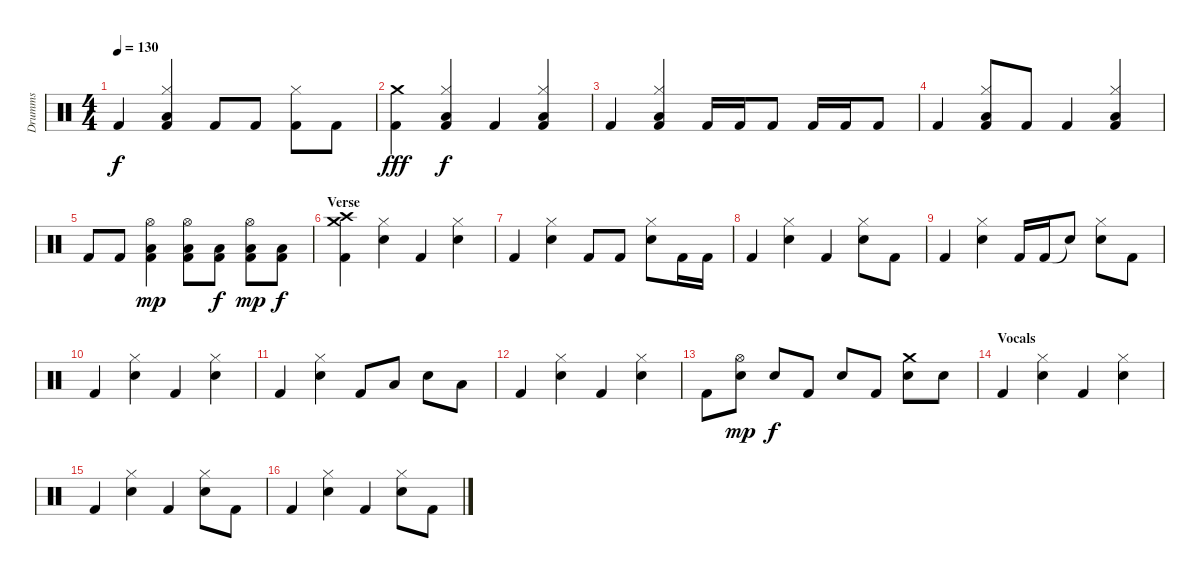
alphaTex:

\track ("Drumms" "Drumms") {instrument percussion}
\staff {score}
\articulation defaults
\ts (4 4)
\tempo 130
\clef neutral
\ks c "Kick (hit) 2".4{dy f}
("Hi-Hat (closed)" "Kick (hit) 2" "Low Tom (hit)").4 "Kick (hit) 2".8 "Kick (hit) 2".8 ("Hi-Hat (closed)" "Kick (hit) 2").8 "Kick (hit) 2".8 |
("Crash medium (hit)" "Kick (hit) 2").4{dy fff} ("Hi-Hat (closed)" "Kick (hit) 2" "Low Tom (hit)").4{dy f} "Kick (hit) 2".4 ("Hi-Hat (closed)" "Kick (hit) 2" "Low Tom (hit)").4 |
"Kick (hit) 2".4 ("Hi-Hat (closed)" "Kick (hit) 2" "Low Tom (hit)").4 "Kick (hit) 2".16 "Kick (hit) 2".16 "Kick (hit) 2".8 "Kick (hit) 2".16 "Kick (hit) 2".16 "Kick (hit) 2".8 |
"Kick (hit) 2".4 ("Hi-Hat (closed)" "Kick (hit) 2" "Low Tom (hit)").8 "Kick (hit) 2".8 "Kick (hit) 2".4 ("Hi-Hat (closed)" "Kick (hit) 2" "Low Tom (hit)").4 |
"Kick (hit) 2".8 "Kick (hit) 2".8 ("Hi-Hat (open)" "Kick (hit) 2" "Low Tom (hit)").4{dy mp} ("Hi-Hat (open)" "Kick (hit) 2" "Low Tom (hit)").8 ("Kick (hit) 2" "Low Tom (hit)").8{dy f} ("Hi-Hat (open)" "Kick (hit) 2" "Low Tom (hit)").8{dy mp} ("Kick (hit) 2" "Low Tom (hit)").8{dy f} |
\section ("" "Verse")
("Crash medium (hit)" "Crash high (hit)" "Kick (hit) 2").4 ("Hi-Hat (closed)" "Electric Snare (hit)").4 "Kick (hit) 2".4 ("Hi-Hat (closed)" "Electric Snare (hit)").4 |
"Kick (hit) 2".4 ("Hi-Hat (closed)" "Electric Snare (hit)").4 "Kick (hit) 2".8 "Kick (hit) 2".8 ("Hi-Hat (closed)" "Electric Snare (hit)").8 "Kick (hit) 2".16 "Kick (hit) 2".16 |
"Kick (hit) 2".4 ("Hi-Hat (closed)" "Electric Snare (hit)").4 "Kick (hit) 2".4 ("Hi-Hat (closed)" "Electric Snare (hit)").8 "Kick (hit) 2".8 |
"Kick (hit) 2".4 ("Hi-Hat (closed)" "Electric Snare (hit)").4 "Kick (hit) 2".16 "Kick (hit) 2".16 "Snare (hit)"{t}.8 ("Hi-Hat (closed)" "Electric Snare (hit)").8 "Kick (hit) 2".8 |
"Kick (hit) 2".4 ("Hi-Hat (closed)" "Electric Snare (hit)").4 "Kick (hit) 2".4 ("Hi-Hat (closed)" "Electric Snare (hit)").4 |
"Kick (hit) 2".4 ("Hi-Hat (closed)" "Electric Snare (hit)").4 "Kick (hit) 2".8 "Low Tom (hit)".8 "Electric Snare (hit)".8 "Low Tom (hit)".8 |
"Kick (hit) 2".4 ("Hi-Hat (closed)" "Electric Snare (hit)").4 "Kick (hit) 2".4 ("Hi-Hat (closed)" "Electric Snare (hit)").4 |
"Kick (hit) 2".8 ("Hi-Hat (open)" "Electric Snare (hit)").8{dy mp} "Electric Snare (hit)".8{dy f} "Kick (hit) 2".8 "Electric Snare (hit)".8 "Kick (hit) 2".8 ("Crash medium (hit)" "Electric Snare (hit)").8 "Electric Snare (hit)".8 |
\section ("" "Vocals")
"Kick (hit) 2".4 ("Hi-Hat (closed)" "Electric Snare (hit)").4 "Kick (hit) 2".4 ("Hi-Hat (closed)" "Electric Snare (hit)").4 |
"Kick (hit) 2".4 ("Hi-Hat (closed)" "Electric Snare (hit)").4 "Kick (hit) 2".4 ("Hi-Hat (closed)" "Electric Snare (hit)").8 "Kick (hit) 2".8 |
"Kick (hit) 2".4 ("Hi-Hat (closed)" "Electric Snare (hit)").4 "Kick (hit) 2".4 ("Hi-Hat (closed)" "Electric Snare (hit)").8 "Kick (hit) 2".8
